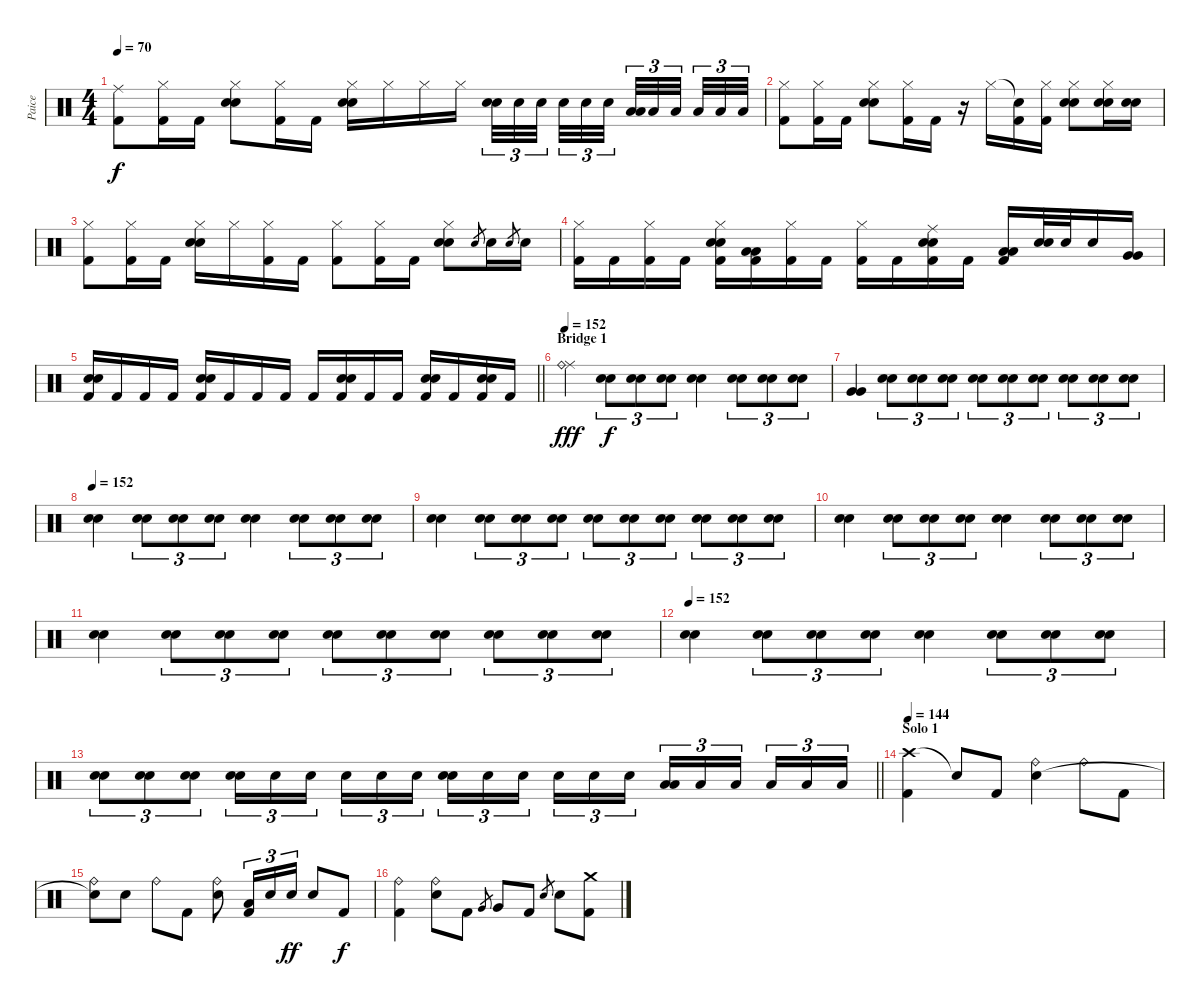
\track ("Paice" "Paice") {instrument percussion}
\staff {score}
\articulation defaults
\ts (4 4)
\tempo 70
\clef neutral
\ks c
("Ride (middle)" "Kick (hit) 2").8{dy f} ("Hi-Hat (closed)" "Kick (hit) 2").16 "Kick (hit) 2".16 ("Hi-Hat (closed)" "Electric Snare (hit)" "Electric Snare (hit)").8 ("Hi-Hat (closed)" "Kick (hit) 2").16 "Kick (hit) 2".16 ("Hi-Hat (closed)" "Electric Snare (hit)" "Electric Snare (hit)").16 "Hi-Hat (closed)".16 "Hi-Hat (closed)".16 "Hi-Hat (closed)".16 ("Electric Snare (hit)" "Electric Snare (hit)").32{tu (3 2)} "Electric Snare (hit)".32{tu (3 2)} "Electric Snare (hit)".32{tu (3 2) beam splitsecondary} "Electric Snare (hit)".32{tu (3 2)} "Electric Snare (hit)".32{tu (3 2)} "Electric Snare (hit)".32{tu (3 2) beam splitsecondary} ("Low Tom (hit)" "Low Tom (hit)").32{tu (3 2)} "Low Tom (hit)".32{tu (3 2)} "Low Tom (hit)".32{tu (3 2) beam splitsecondary} "Low Tom (hit)".32{tu (3 2)} "Low Tom (hit)".32{tu (3 2)} "Low Tom (hit)".32{tu (3 2)} |
("Hi-Hat (closed)" "Kick (hit) 2").8 ("Hi-Hat (closed)" "Kick (hit) 2").16 "Kick (hit) 2".16 ("Hi-Hat (closed)" "Electric Snare (hit)" "Electric Snare (hit)").8 ("Hi-Hat (closed)" "Kick (hit) 2").16 "Kick (hit) 2".16 r.16 "Hi-Hat (closed)".16 ("Snare (hit)"{t} "Kick (hit) 2").16 ("Hi-Hat (closed)" "Kick (hit) 2").16 ("Hi-Hat (closed)" "Electric Snare (hit)" "Electric Snare (hit)").8 ("Hi-Hat (closed)" "Electric Snare (hit)" "Electric Snare (hit)").16 ("Electric Snare (hit)" "Electric Snare (hit)").16 |
("Hi-Hat (closed)" "Kick (hit) 2").8 ("Hi-Hat (closed)" "Kick (hit) 2").16 "Kick (hit) 2".16 ("Hi-Hat (closed)" "Electric Snare (hit)" "Electric Snare (hit)").16 "Hi-Hat (closed)".16 ("Hi-Hat (closed)" "Kick (hit) 2").16 "Kick (hit) 2".16 ("Hi-Hat (closed)" "Kick (hit) 2").8 ("Hi-Hat (closed)" "Kick (hit) 2").16 "Kick (hit) 2".16 ("Hi-Hat (closed)" "Electric Snare (hit)" "Electric Snare (hit)").8 "Electric Snare (hit)".8{gr} "Electric Snare (hit)".16 "Electric Snare (hit)".8{gr} "Electric Snare (hit)".16 |
("Hi-Hat (closed)" "Kick (hit) 2").16 "Kick (hit) 2".16 ("Hi-Hat (closed)" "Kick (hit) 2").16 "Kick (hit) 2".16 ("Hi-Hat (closed)" "Electric Snare (hit)" "Electric Snare (hit)" "Kick (hit) 2").16 ("Low Tom (hit)" "Low Tom (hit)" "Kick (hit) 2").16 ("Hi-Hat (closed)" "Kick (hit) 2").16 "Kick (hit) 2".16 ("Hi-Hat (closed)" "Kick (hit) 2").16 "Kick (hit) 2".16 ("Ride (middle)" "Electric Snare (hit)" "Electric Snare (hit)" "Kick (hit) 2").16 "Kick (hit) 2".16 ("Low Tom (hit)" "Low Tom (hit)" "Kick (hit) 2").16 ("Electric Snare (hit)" "Electric Snare (hit)").32 "Electric Snare (hit)".32 "Electric Snare (hit)".16 ("Very Low Tom (hit)" "Very Low Tom (hit)").16 |
\barLineRight lightlight
("Electric Snare (hit)" "Electric Snare (hit)" "Kick (hit) 2").16 "Kick (hit) 2".16 "Kick (hit) 2".16 "Kick (hit) 2".16 ("Electric Snare (hit)" "Electric Snare (hit)" "Kick (hit) 2").16 "Kick (hit) 2".16 "Kick (hit) 2".16 "Kick (hit) 2".16 "Kick (hit) 2".16 ("Electric Snare (hit)" "Electric Snare (hit)" "Kick (hit) 2").16 "Kick (hit) 2".16 "Kick (hit) 2".16 ("Electric Snare (hit)" "Electric Snare (hit)" "Kick (hit) 2").16 "Kick (hit) 2".16 ("Electric Snare (hit)" "Electric Snare (hit)" "Kick (hit) 2").16 "Kick (hit) 2".16 |
\section ("" "Bridge 1")
\tempo 152
("Ride (middle)" "Ride (bell)").4{dy fff} ("Electric Snare (hit)" "Electric Snare (hit)").8{tu (3 2) dy f} ("Electric Snare (hit)" "Electric Snare (hit)").8{tu (3 2)} ("Electric Snare (hit)" "Electric Snare (hit)").8{tu (3 2)} ("Electric Snare (hit)" "Electric Snare (hit)").4 ("Electric Snare (hit)" "Electric Snare (hit)").8{tu (3 2)} ("Electric Snare (hit)" "Electric Snare (hit)").8{tu (3 2)} ("Electric Snare (hit)" "Electric Snare (hit)").8{tu (3 2)} |
("Very Low Tom (hit)" "Very Low Tom (hit)").4 ("Electric Snare (hit)" "Electric Snare (hit)").8{tu (3 2)} ("Electric Snare (hit)" "Electric Snare (hit)").8{tu (3 2)} ("Electric Snare (hit)" "Electric Snare (hit)").8{tu (3 2)} ("Electric Snare (hit)" "Electric Snare (hit)").8{tu (3 2)} ("Electric Snare (hit)" "Electric Snare (hit)").8{tu (3 2)} ("Electric Snare (hit)" "Electric Snare (hit)").8{tu (3 2)} ("Electric Snare (hit)" "Electric Snare (hit)").8{tu (3 2)} ("Electric Snare (hit)" "Electric Snare (hit)").8{tu (3 2)} ("Electric Snare (hit)" "Electric Snare (hit)").8{tu (3 2)} |
\tempo 152
("Electric Snare (hit)" "Electric Snare (hit)").4 ("Electric Snare (hit)" "Electric Snare (hit)").8{tu (3 2)} ("Electric Snare (hit)" "Electric Snare (hit)").8{tu (3 2)} ("Electric Snare (hit)" "Electric Snare (hit)").8{tu (3 2)} ("Electric Snare (hit)" "Electric Snare (hit)").4 ("Electric Snare (hit)" "Electric Snare (hit)").8{tu (3 2)} ("Electric Snare (hit)" "Electric Snare (hit)").8{tu (3 2)} ("Electric Snare (hit)" "Electric Snare (hit)").8{tu (3 2)} |
("Electric Snare (hit)" "Electric Snare (hit)").4 ("Electric Snare (hit)" "Electric Snare (hit)").8{tu (3 2)} ("Electric Snare (hit)" "Electric Snare (hit)").8{tu (3 2)} ("Electric Snare (hit)" "Electric Snare (hit)").8{tu (3 2)} ("Electric Snare (hit)" "Electric Snare (hit)").8{tu (3 2)} ("Electric Snare (hit)" "Electric Snare (hit)").8{tu (3 2)} ("Electric Snare (hit)" "Electric Snare (hit)").8{tu (3 2)} ("Electric Snare (hit)" "Electric Snare (hit)").8{tu (3 2)} ("Electric Snare (hit)" "Electric Snare (hit)").8{tu (3 2)} ("Electric Snare (hit)" "Electric Snare (hit)").8{tu (3 2)} |
("Electric Snare (hit)" "Electric Snare (hit)").4 ("Electric Snare (hit)" "Electric Snare (hit)").8{tu (3 2)} ("Electric Snare (hit)" "Electric Snare (hit)").8{tu (3 2)} ("Electric Snare (hit)" "Electric Snare (hit)").8{tu (3 2)} ("Electric Snare (hit)" "Electric Snare (hit)").4 ("Electric Snare (hit)" "Electric Snare (hit)").8{tu (3 2)} ("Electric Snare (hit)" "Electric Snare (hit)").8{tu (3 2)} ("Electric Snare (hit)" "Electric Snare (hit)").8{tu (3 2)} |
("Electric Snare (hit)" "Electric Snare (hit)").4 ("Electric Snare (hit)" "Electric Snare (hit)").8{tu (3 2)} ("Electric Snare (hit)" "Electric Snare (hit)").8{tu (3 2)} ("Electric Snare (hit)" "Electric Snare (hit)").8{tu (3 2)} ("Electric Snare (hit)" "Electric Snare (hit)").8{tu (3 2)} ("Electric Snare (hit)" "Electric Snare (hit)").8{tu (3 2)} ("Electric Snare (hit)" "Electric Snare (hit)").8{tu (3 2)} ("Electric Snare (hit)" "Electric Snare (hit)").8{tu (3 2)} ("Electric Snare (hit)" "Electric Snare (hit)").8{tu (3 2)} ("Electric Snare (hit)" "Electric Snare (hit)").8{tu (3 2)} |
\tempo 152
("Electric Snare (hit)" "Electric Snare (hit)").4 ("Electric Snare (hit)" "Electric Snare (hit)").8{tu (3 2)} ("Electric Snare (hit)" "Electric Snare (hit)").8{tu (3 2)} ("Electric Snare (hit)" "Electric Snare (hit)").8{tu (3 2)} ("Electric Snare (hit)" "Electric Snare (hit)").4 ("Electric Snare (hit)" "Electric Snare (hit)").8{tu (3 2)} ("Electric Snare (hit)" "Electric Snare (hit)").8{tu (3 2)} ("Electric Snare (hit)" "Electric Snare (hit)").8{tu (3 2)} |
\barLineRight lightlight
("Electric Snare (hit)" "Electric Snare (hit)").8{tu (3 2)} ("Electric Snare (hit)" "Electric Snare (hit)").8{tu (3 2)} ("Electric Snare (hit)" "Electric Snare (hit)").8{tu (3 2)} ("Electric Snare (hit)" "Electric Snare (hit)").16{tu (3 2)} "Electric Snare (hit)".16{tu (3 2)} "Electric Snare (hit)".16{tu (3 2) beam splitsecondary} "Electric Snare (hit)".16{tu (3 2)} "Electric Snare (hit)".16{tu (3 2)} "Electric Snare (hit)".16{tu (3 2)} ("Electric Snare (hit)" "Electric Snare (hit)").16{tu (3 2)} "Electric Snare (hit)".16{tu (3 2)} "Electric Snare (hit)".16{tu (3 2) beam splitsecondary} "Electric Snare (hit)".16{tu (3 2)} "Electric Snare (hit)".16{tu (3 2)} "Electric Snare (hit)".16{tu (3 2)} ("Low Tom (hit)" "Low Tom (hit)").16{tu (3 2)} "Low Tom (hit)".16{tu (3 2)} "Low Tom (hit)".16{tu (3 2) beam splitsecondary} "Low Tom (hit)".16{tu (3 2)} "Low Tom (hit)".16{tu (3 2)} "Low Tom (hit)".16{tu (3 2)} |
\section ("" "Solo 1")
\tempo 144
("Crash high (hit)" "Kick (hit) 2").4 "Snare (hit)"{t}.8 "Kick (hit) 2".8 ("Ride (bell)" "Electric Snare (hit)").4 "Ride (bell)".8 "Kick (hit) 2".8 |
("Ride (bell)" "Snare (hit)"{t}).8 "Electric Snare (hit)".8 "Ride (bell)".8 "Kick (hit) 2".8 ("Ride (bell)" "Electric Snare (hit)").8 ("Low Tom (hit)" "Kick (hit) 2").16{tu (3 2)} "Electric Snare (hit)".16{tu (3 2)} "Electric Snare (hit)".16{tu (3 2) dy ff} "Electric Snare (hit)".8 "Kick (hit) 2".8{dy f} |
("Ride (bell)" "Kick (hit) 2").4 ("Ride (bell)" "Electric Snare (hit)").8 "Kick (hit) 2".8 "Very Low Tom (hit)".8{gr} "Very Low Tom (hit)".8 "Kick (hit) 2".8 "Electric Snare (hit)".8{gr} "Electric Snare (hit)".8 ("Crash medium (hit)" "Kick (hit) 2").8
